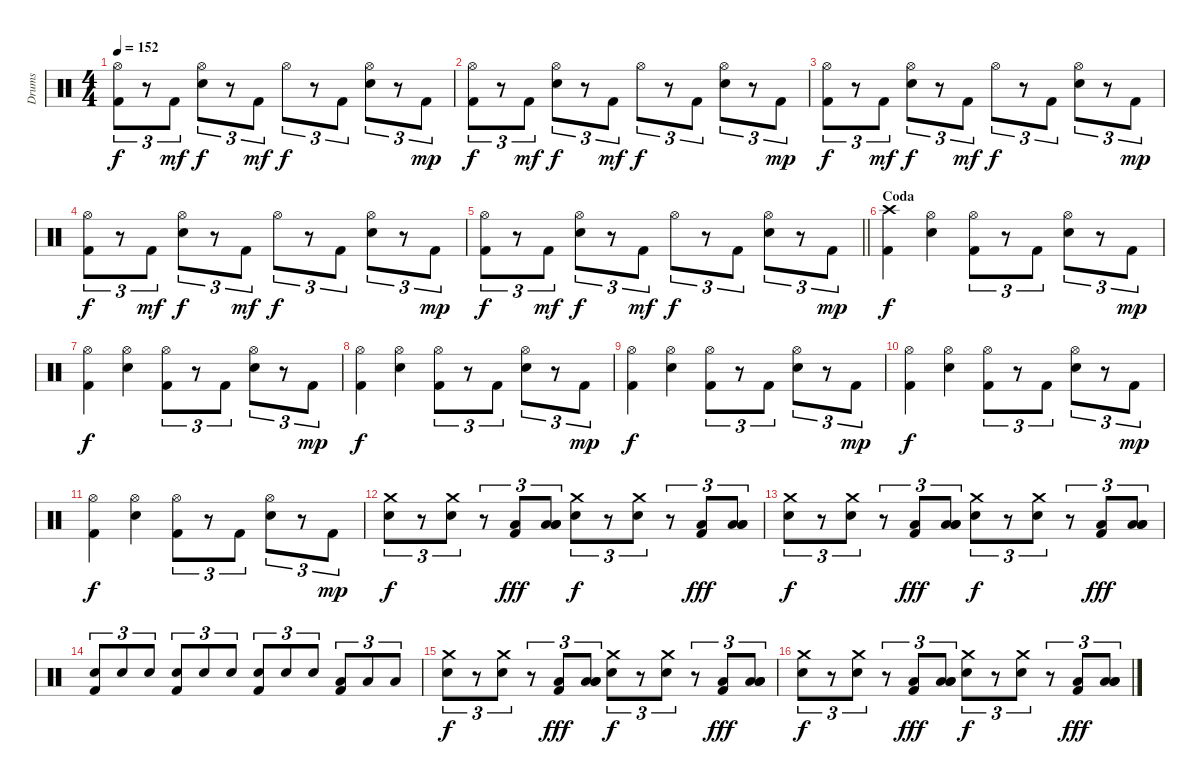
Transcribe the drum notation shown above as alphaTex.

\track ("Drums" "Drums") {instrument percussion}
\staff {score}
\articulation defaults
\ts (4 4)
\tempo 152
\clef neutral
\ks c
("Hi-Hat (open)" "Kick (hit) 2").8{tu (3 2) dy f} r.8{tu (3 2)} "Kick (hit) 2".8{tu (3 2) dy mf} ("Hi-Hat (open)" "Snare (hit) 2").8{tu (3 2) dy f} r.8{tu (3 2)} "Kick (hit) 2".8{tu (3 2) dy mf} "Hi-Hat (open)".8{tu (3 2) dy f} r.8{tu (3 2)} "Kick (hit) 2".8{tu (3 2)} ("Hi-Hat (open)" "Snare (hit) 2").8{tu (3 2)} r.8{tu (3 2)} "Kick (hit) 2".8{tu (3 2) dy mp} |
("Hi-Hat (open)" "Kick (hit) 2").8{tu (3 2) dy f} r.8{tu (3 2)} "Kick (hit) 2".8{tu (3 2) dy mf} ("Hi-Hat (open)" "Snare (hit) 2").8{tu (3 2) dy f} r.8{tu (3 2)} "Kick (hit) 2".8{tu (3 2) dy mf} "Hi-Hat (open)".8{tu (3 2) dy f} r.8{tu (3 2)} "Kick (hit) 2".8{tu (3 2)} ("Hi-Hat (open)" "Snare (hit) 2").8{tu (3 2)} r.8{tu (3 2)} "Kick (hit) 2".8{tu (3 2) dy mp} |
("Hi-Hat (open)" "Kick (hit) 2").8{tu (3 2) dy f} r.8{tu (3 2)} "Kick (hit) 2".8{tu (3 2) dy mf} ("Hi-Hat (open)" "Snare (hit) 2").8{tu (3 2) dy f} r.8{tu (3 2)} "Kick (hit) 2".8{tu (3 2) dy mf} "Hi-Hat (open)".8{tu (3 2) dy f} r.8{tu (3 2)} "Kick (hit) 2".8{tu (3 2)} ("Hi-Hat (open)" "Snare (hit) 2").8{tu (3 2)} r.8{tu (3 2)} "Kick (hit) 2".8{tu (3 2) dy mp} |
("Hi-Hat (open)" "Kick (hit) 2").8{tu (3 2) dy f} r.8{tu (3 2)} "Kick (hit) 2".8{tu (3 2) dy mf} ("Hi-Hat (open)" "Snare (hit) 2").8{tu (3 2) dy f} r.8{tu (3 2)} "Kick (hit) 2".8{tu (3 2) dy mf} "Hi-Hat (open)".8{tu (3 2) dy f} r.8{tu (3 2)} "Kick (hit) 2".8{tu (3 2)} ("Hi-Hat (open)" "Snare (hit) 2").8{tu (3 2)} r.8{tu (3 2)} "Kick (hit) 2".8{tu (3 2) dy mp} |
\barLineRight lightlight
("Hi-Hat (open)" "Kick (hit) 2").8{tu (3 2) dy f} r.8{tu (3 2)} "Kick (hit) 2".8{tu (3 2) dy mf} ("Hi-Hat (open)" "Snare (hit) 2").8{tu (3 2) dy f} r.8{tu (3 2)} "Kick (hit) 2".8{tu (3 2) dy mf} "Hi-Hat (open)".8{tu (3 2) dy f} r.8{tu (3 2)} "Kick (hit) 2".8{tu (3 2)} ("Hi-Hat (open)" "Snare (hit) 2").8{tu (3 2)} r.8{tu (3 2)} "Kick (hit) 2".8{tu (3 2) dy mp} |
\section ("" "Coda")
("Crash high (hit)" "Kick (hit) 2").4{dy f} ("Hi-Hat (open)" "Snare (hit) 2").4 ("Hi-Hat (open)" "Kick (hit) 2").8{tu (3 2)} r.8{tu (3 2)} "Kick (hit) 2".8{tu (3 2)} ("Hi-Hat (open)" "Snare (hit) 2").8{tu (3 2)} r.8{tu (3 2)} "Kick (hit) 2".8{tu (3 2) dy mp} |
("Hi-Hat (open)" "Kick (hit) 2").4{dy f} ("Hi-Hat (open)" "Snare (hit) 2").4 ("Hi-Hat (open)" "Kick (hit) 2").8{tu (3 2)} r.8{tu (3 2)} "Kick (hit) 2".8{tu (3 2)} ("Hi-Hat (open)" "Snare (hit) 2").8{tu (3 2)} r.8{tu (3 2)} "Kick (hit) 2".8{tu (3 2) dy mp} |
("Hi-Hat (open)" "Kick (hit) 2").4{dy f} ("Hi-Hat (open)" "Snare (hit) 2").4 ("Hi-Hat (open)" "Kick (hit) 2").8{tu (3 2)} r.8{tu (3 2)} "Kick (hit) 2".8{tu (3 2)} ("Hi-Hat (open)" "Snare (hit) 2").8{tu (3 2)} r.8{tu (3 2)} "Kick (hit) 2".8{tu (3 2) dy mp} |
("Hi-Hat (open)" "Kick (hit) 2").4{dy f} ("Hi-Hat (open)" "Snare (hit) 2").4 ("Hi-Hat (open)" "Kick (hit) 2").8{tu (3 2)} r.8{tu (3 2)} "Kick (hit) 2".8{tu (3 2)} ("Hi-Hat (open)" "Snare (hit) 2").8{tu (3 2)} r.8{tu (3 2)} "Kick (hit) 2".8{tu (3 2) dy mp} |
("Hi-Hat (open)" "Kick (hit) 2").4{dy f} ("Hi-Hat (open)" "Snare (hit) 2").4 ("Hi-Hat (open)" "Kick (hit) 2").8{tu (3 2)} r.8{tu (3 2)} "Kick (hit) 2".8{tu (3 2)} ("Hi-Hat (open)" "Snare (hit) 2").8{tu (3 2)} r.8{tu (3 2)} "Kick (hit) 2".8{tu (3 2) dy mp} |
("Hi-Hat (open)" "Kick (hit) 2").4{dy f} ("Hi-Hat (open)" "Snare (hit) 2").4 ("Hi-Hat (open)" "Kick (hit) 2").8{tu (3 2)} r.8{tu (3 2)} "Kick (hit) 2".8{tu (3 2)} ("Hi-Hat (open)" "Snare (hit) 2").8{tu (3 2)} r.8{tu (3 2)} "Kick (hit) 2".8{tu (3 2) dy mp} |
("Crash medium (hit)" "Snare (hit) 2").8{tu (3 2) dy f} r.8{tu (3 2)} ("Crash medium (hit)" "Snare (hit) 2").8{tu (3 2)} r.8{tu (3 2)} ("Kick (hit) 2" "Low Tom (hit)").8{tu (3 2) dy fff} ("Low Tom (hit)" "Low Tom (hit)" "Low Tom (hit)").8{tu (3 2)} ("Crash medium (hit)" "Snare (hit) 2").8{tu (3 2) dy f} r.8{tu (3 2)} ("Crash medium (hit)" "Snare (hit) 2").8{tu (3 2)} r.8{tu (3 2)} ("Kick (hit) 2" "Low Tom (hit)").8{tu (3 2) dy fff} ("Low Tom (hit)" "Low Tom (hit)" "Low Tom (hit)").8{tu (3 2)} |
("Crash medium (hit)" "Snare (hit) 2").8{tu (3 2) dy f} r.8{tu (3 2)} ("Crash medium (hit)" "Snare (hit) 2").8{tu (3 2)} r.8{tu (3 2)} ("Kick (hit) 2" "Low Tom (hit)").8{tu (3 2) dy fff} ("Low Tom (hit)" "Low Tom (hit)" "Low Tom (hit)").8{tu (3 2)} ("Crash medium (hit)" "Snare (hit) 2").8{tu (3 2) dy f} r.8{tu (3 2)} ("Crash medium (hit)" "Snare (hit) 2").8{tu (3 2)} r.8{tu (3 2)} ("Kick (hit) 2" "Low Tom (hit)").8{tu (3 2) dy fff} ("Low Tom (hit)" "Low Tom (hit)" "Low Tom (hit)").8{tu (3 2)} |
("Snare (hit) 2" "Kick (hit) 2").8{tu (3 2)} "Snare (hit) 2".8{tu (3 2)} "Snare (hit) 2".8{tu (3 2)} ("Snare (hit) 2" "Kick (hit) 2").8{tu (3 2)} "Snare (hit) 2".8{tu (3 2)} "Snare (hit) 2".8{tu (3 2)} ("Snare (hit) 2" "Kick (hit) 2").8{tu (3 2)} "Snare (hit) 2".8{tu (3 2)} "Snare (hit) 2".8{tu (3 2)} ("Low Tom (hit)" "Kick (hit) 2").8{tu (3 2)} "Low Tom (hit)".8{tu (3 2)} "Low Floor Tom (hit)".8{tu (3 2)} |
("Crash medium (hit)" "Snare (hit) 2").8{tu (3 2) dy f} r.8{tu (3 2)} ("Crash medium (hit)" "Snare (hit) 2").8{tu (3 2)} r.8{tu (3 2)} ("Kick (hit) 2" "Low Tom (hit)").8{tu (3 2) dy fff} ("Low Tom (hit)" "Low Tom (hit)" "Low Tom (hit)").8{tu (3 2)} ("Crash medium (hit)" "Snare (hit) 2").8{tu (3 2) dy f} r.8{tu (3 2)} ("Crash medium (hit)" "Snare (hit) 2").8{tu (3 2)} r.8{tu (3 2)} ("Kick (hit) 2" "Low Tom (hit)").8{tu (3 2) dy fff} ("Low Tom (hit)" "Low Tom (hit)" "Low Tom (hit)").8{tu (3 2)} |
("Crash medium (hit)" "Snare (hit) 2").8{tu (3 2) dy f} r.8{tu (3 2)} ("Crash medium (hit)" "Snare (hit) 2").8{tu (3 2)} r.8{tu (3 2)} ("Kick (hit) 2" "Low Tom (hit)").8{tu (3 2) dy fff} ("Low Tom (hit)" "Low Tom (hit)" "Low Tom (hit)").8{tu (3 2)} ("Crash medium (hit)" "Snare (hit) 2").8{tu (3 2) dy f} r.8{tu (3 2)} ("Crash medium (hit)" "Snare (hit) 2").8{tu (3 2)} r.8{tu (3 2)} ("Kick (hit) 2" "Low Tom (hit)").8{tu (3 2) dy fff} ("Low Tom (hit)" "Low Tom (hit)" "Low Tom (hit)").8{tu (3 2)}
